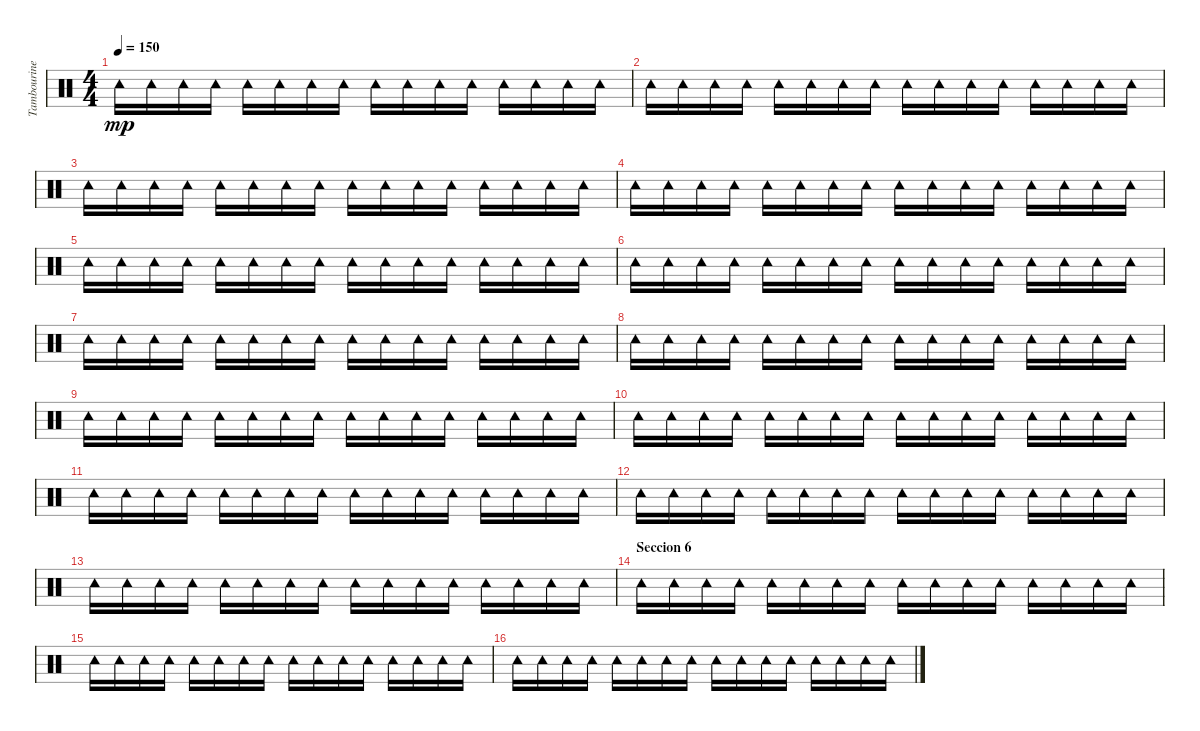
\track ("Tambourine" "Tambourine") {instrument percussion}
\staff {score}
\articulation defaults
\ts (4 4)
\tempo 150
\clef neutral
\ks c "Tambourine (hit)".16{dy mp} "Tambourine (hit)".16 "Tambourine (hit)".16 "Tambourine (hit)".16 "Tambourine (hit)".16 "Tambourine (hit)".16 "Tambourine (hit)".16 "Tambourine (hit)".16 "Tambourine (hit)".16 "Tambourine (hit)".16 "Tambourine (hit)".16 "Tambourine (hit)".16 "Tambourine (hit)".16 "Tambourine (hit)".16 "Tambourine (hit)".16 "Tambourine (hit)".16
|
"Tambourine (hit)".16 "Tambourine (hit)".16 "Tambourine (hit)".16 "Tambourine (hit)".16 "Tambourine (hit)".16 "Tambourine (hit)".16 "Tambourine (hit)".16 "Tambourine (hit)".16 "Tambourine (hit)".16 "Tambourine (hit)".16 "Tambourine (hit)".16 "Tambourine (hit)".16 "Tambourine (hit)".16 "Tambourine (hit)".16 "Tambourine (hit)".16 "Tambourine (hit)".16 |
"Tambourine (hit)".16 "Tambourine (hit)".16 "Tambourine (hit)".16 "Tambourine (hit)".16 "Tambourine (hit)".16 "Tambourine (hit)".16 "Tambourine (hit)".16 "Tambourine (hit)".16 "Tambourine (hit)".16 "Tambourine (hit)".16 "Tambourine (hit)".16 "Tambourine (hit)".16 "Tambourine (hit)".16 "Tambourine (hit)".16 "Tambourine (hit)".16 "Tambourine (hit)".16 |
"Tambourine (hit)".16 "Tambourine (hit)".16 "Tambourine (hit)".16 "Tambourine (hit)".16 "Tambourine (hit)".16 "Tambourine (hit)".16 "Tambourine (hit)".16 "Tambourine (hit)".16 "Tambourine (hit)".16 "Tambourine (hit)".16 "Tambourine (hit)".16 "Tambourine (hit)".16 "Tambourine (hit)".16 "Tambourine (hit)".16 "Tambourine (hit)".16 "Tambourine (hit)".16 |
"Tambourine (hit)".16 "Tambourine (hit)".16 "Tambourine (hit)".16 "Tambourine (hit)".16 "Tambourine (hit)".16 "Tambourine (hit)".16 "Tambourine (hit)".16 "Tambourine (hit)".16 "Tambourine (hit)".16 "Tambourine (hit)".16 "Tambourine (hit)".16 "Tambourine (hit)".16 "Tambourine (hit)".16 "Tambourine (hit)".16 "Tambourine (hit)".16 "Tambourine (hit)".16 |
"Tambourine (hit)".16 "Tambourine (hit)".16 "Tambourine (hit)".16 "Tambourine (hit)".16 "Tambourine (hit)".16 "Tambourine (hit)".16 "Tambourine (hit)".16 "Tambourine (hit)".16 "Tambourine (hit)".16 "Tambourine (hit)".16 "Tambourine (hit)".16 "Tambourine (hit)".16 "Tambourine (hit)".16 "Tambourine (hit)".16 "Tambourine (hit)".16 "Tambourine (hit)".16 |
"Tambourine (hit)".16 "Tambourine (hit)".16 "Tambourine (hit)".16 "Tambourine (hit)".16 "Tambourine (hit)".16 "Tambourine (hit)".16 "Tambourine (hit)".16 "Tambourine (hit)".16 "Tambourine (hit)".16 "Tambourine (hit)".16 "Tambourine (hit)".16 "Tambourine (hit)".16 "Tambourine (hit)".16 "Tambourine (hit)".16 "Tambourine (hit)".16 "Tambourine (hit)".16 |
"Tambourine (hit)".16 "Tambourine (hit)".16 "Tambourine (hit)".16 "Tambourine (hit)".16 "Tambourine (hit)".16 "Tambourine (hit)".16 "Tambourine (hit)".16 "Tambourine (hit)".16 "Tambourine (hit)".16 "Tambourine (hit)".16 "Tambourine (hit)".16 "Tambourine (hit)".16 "Tambourine (hit)".16 "Tambourine (hit)".16 "Tambourine (hit)".16 "Tambourine (hit)".16 |
"Tambourine (hit)".16 "Tambourine (hit)".16 "Tambourine (hit)".16 "Tambourine (hit)".16 "Tambourine (hit)".16 "Tambourine (hit)".16 "Tambourine (hit)".16 "Tambourine (hit)".16 "Tambourine (hit)".16 "Tambourine (hit)".16 "Tambourine (hit)".16 "Tambourine (hit)".16 "Tambourine (hit)".16 "Tambourine (hit)".16 "Tambourine (hit)".16 "Tambourine (hit)".16 |
"Tambourine (hit)".16 "Tambourine (hit)".16 "Tambourine (hit)".16 "Tambourine (hit)".16 "Tambourine (hit)".16 "Tambourine (hit)".16 "Tambourine (hit)".16 "Tambourine (hit)".16 "Tambourine (hit)".16 "Tambourine (hit)".16 "Tambourine (hit)".16 "Tambourine (hit)".16 "Tambourine (hit)".16 "Tambourine (hit)".16 "Tambourine (hit)".16 "Tambourine (hit)".16 |
"Tambourine (hit)".16 "Tambourine (hit)".16 "Tambourine (hit)".16 "Tambourine (hit)".16 "Tambourine (hit)".16 "Tambourine (hit)".16 "Tambourine (hit)".16 "Tambourine (hit)".16 "Tambourine (hit)".16 "Tambourine (hit)".16 "Tambourine (hit)".16 "Tambourine (hit)".16 "Tambourine (hit)".16 "Tambourine (hit)".16 "Tambourine (hit)".16 "Tambourine (hit)".16 |
"Tambourine (hit)".16 "Tambourine (hit)".16 "Tambourine (hit)".16 "Tambourine (hit)".16 "Tambourine (hit)".16 "Tambourine (hit)".16 "Tambourine (hit)".16 "Tambourine (hit)".16 "Tambourine (hit)".16 "Tambourine (hit)".16 "Tambourine (hit)".16 "Tambourine (hit)".16 "Tambourine (hit)".16 "Tambourine (hit)".16 "Tambourine (hit)".16 "Tambourine (hit)".16 |
"Tambourine (hit)".16 "Tambourine (hit)".16 "Tambourine (hit)".16 "Tambourine (hit)".16 "Tambourine (hit)".16 "Tambourine (hit)".16 "Tambourine (hit)".16 "Tambourine (hit)".16 "Tambourine (hit)".16 "Tambourine (hit)".16 "Tambourine (hit)".16 "Tambourine (hit)".16 "Tambourine (hit)".16 "Tambourine (hit)".16 "Tambourine (hit)".16 "Tambourine (hit)".16 |
\section ("" "Seccion 6")
"Tambourine (hit)".16 "Tambourine (hit)".16 "Tambourine (hit)".16 "Tambourine (hit)".16 "Tambourine (hit)".16 "Tambourine (hit)".16 "Tambourine (hit)".16 "Tambourine (hit)".16 "Tambourine (hit)".16 "Tambourine (hit)".16 "Tambourine (hit)".16 "Tambourine (hit)".16 "Tambourine (hit)".16 "Tambourine (hit)".16 "Tambourine (hit)".16 "Tambourine (hit)".16 |
"Tambourine (hit)".16 "Tambourine (hit)".16 "Tambourine (hit)".16 "Tambourine (hit)".16 "Tambourine (hit)".16 "Tambourine (hit)".16 "Tambourine (hit)".16 "Tambourine (hit)".16 "Tambourine (hit)".16 "Tambourine (hit)".16 "Tambourine (hit)".16 "Tambourine (hit)".16 "Tambourine (hit)".16 "Tambourine (hit)".16 "Tambourine (hit)".16 "Tambourine (hit)".16 |
"Tambourine (hit)".16 "Tambourine (hit)".16 "Tambourine (hit)".16 "Tambourine (hit)".16 "Tambourine (hit)".16 "Tambourine (hit)".16 "Tambourine (hit)".16 "Tambourine (hit)".16 "Tambourine (hit)".16 "Tambourine (hit)".16 "Tambourine (hit)".16 "Tambourine (hit)".16 "Tambourine (hit)".16 "Tambourine (hit)".16 "Tambourine (hit)".16 "Tambourine (hit)".16
